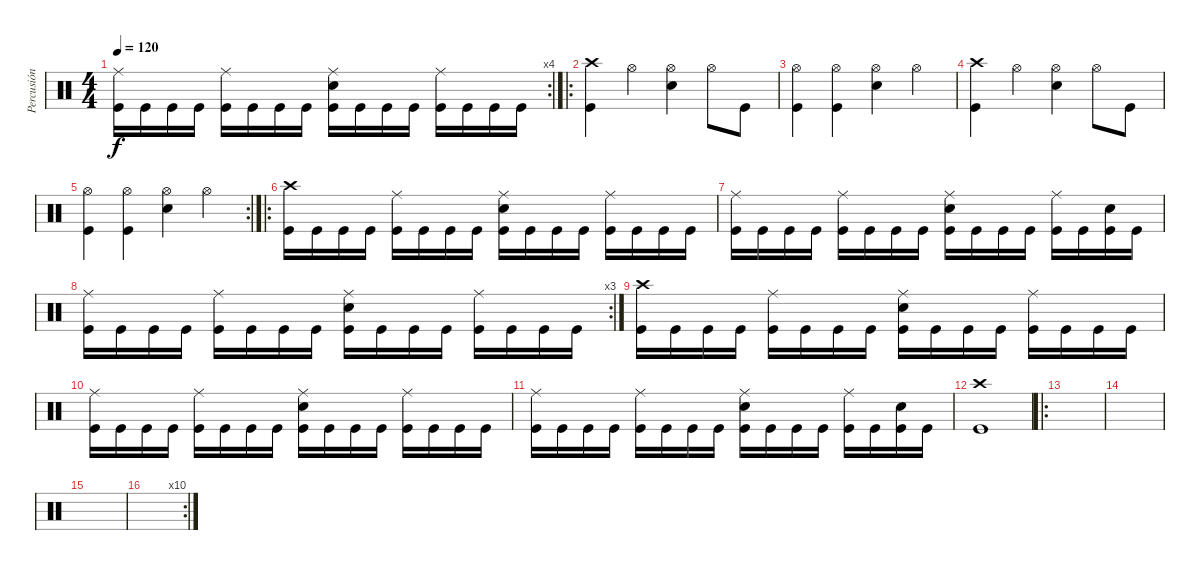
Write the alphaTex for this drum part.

\track ("Percusión" "Percusión") {instrument percussion}
\staff {score}
\articulation defaults
\rc 4
\ts (4 4)
\tempo 120
\clef neutral
\ks c
("Ride (middle)" "Kick (hit)").16{dy f} "Kick (hit)".16 "Kick (hit)".16 "Kick (hit)".16 ("Kick (hit)" "Ride (middle)").16 "Kick (hit)".16 "Kick (hit)".16 "Kick (hit)".16 ("Electric Snare (hit)" "Kick (hit)" "Ride (middle)").16 "Kick (hit)".16 "Kick (hit)".16 "Kick (hit)".16 ("Kick (hit)" "Ride (middle)").16 "Kick (hit)".16 "Kick (hit)".16 "Kick (hit)".16 |
\ro
("Crash high (hit)" "Kick (hit)").4 "Hi-Hat (open)".4 ("Electric Snare (hit)" "Hi-Hat (open)").4 "Hi-Hat (open)".8 "Kick (hit)".8 |
("Kick (hit)" "Hi-Hat (open)").4 ("Kick (hit)" "Hi-Hat (open)").4 ("Electric Snare (hit)" "Hi-Hat (open)").4 "Hi-Hat (open)".4 |
("Crash high (hit)" "Kick (hit)").4 "Hi-Hat (open)".4 ("Electric Snare (hit)" "Hi-Hat (open)").4 "Hi-Hat (open)".8 "Kick (hit)".8 |
\rc 2
("Kick (hit)" "Hi-Hat (open)").4 ("Kick (hit)" "Hi-Hat (open)").4 ("Electric Snare (hit)" "Hi-Hat (open)").4 "Hi-Hat (open)".4 |
\ro
("Crash high (hit)" "Kick (hit)").16 "Kick (hit)".16 "Kick (hit)".16 "Kick (hit)".16 ("Kick (hit)" "Ride (middle)").16 "Kick (hit)".16 "Kick (hit)".16 "Kick (hit)".16 ("Electric Snare (hit)" "Kick (hit)" "Ride (middle)").16 "Kick (hit)".16 "Kick (hit)".16 "Kick (hit)".16 ("Kick (hit)" "Ride (middle)").16 "Kick (hit)".16 "Kick (hit)".16 "Kick (hit)".16 |
("Ride (middle)" "Kick (hit)").16 "Kick (hit)".16 "Kick (hit)".16 "Kick (hit)".16 ("Kick (hit)" "Ride (middle)").16 "Kick (hit)".16 "Kick (hit)".16 "Kick (hit)".16 ("Electric Snare (hit)" "Kick (hit)" "Ride (middle)").16 "Kick (hit)".16 "Kick (hit)".16 "Kick (hit)".16 ("Kick (hit)" "Ride (middle)").16 "Kick (hit)".16 ("Kick (hit)" "Electric Snare (hit)").16 "Kick (hit)".16 |
\rc 3
("Ride (middle)" "Kick (hit)").16 "Kick (hit)".16 "Kick (hit)".16 "Kick (hit)".16 ("Kick (hit)" "Ride (middle)").16 "Kick (hit)".16 "Kick (hit)".16 "Kick (hit)".16 ("Electric Snare (hit)" "Kick (hit)" "Ride (middle)").16 "Kick (hit)".16 "Kick (hit)".16 "Kick (hit)".16 ("Kick (hit)" "Ride (middle)").16 "Kick (hit)".16 "Kick (hit)".16 "Kick (hit)".16 |
("Crash high (hit)" "Kick (hit)").16 "Kick (hit)".16 "Kick (hit)".16 "Kick (hit)".16 ("Kick (hit)" "Ride (middle)").16 "Kick (hit)".16 "Kick (hit)".16 "Kick (hit)".16 ("Electric Snare (hit)" "Kick (hit)" "Ride (middle)").16 "Kick (hit)".16 "Kick (hit)".16 "Kick (hit)".16 ("Kick (hit)" "Ride (middle)").16 "Kick (hit)".16 "Kick (hit)".16 "Kick (hit)".16 |
("Ride (middle)" "Kick (hit)").16 "Kick (hit)".16 "Kick (hit)".16 "Kick (hit)".16 ("Kick (hit)" "Ride (middle)").16 "Kick (hit)".16 "Kick (hit)".16 "Kick (hit)".16 ("Electric Snare (hit)" "Kick (hit)" "Ride (middle)").16 "Kick (hit)".16 "Kick (hit)".16 "Kick (hit)".16 ("Kick (hit)" "Ride (middle)").16 "Kick (hit)".16 "Kick (hit)".16 "Kick (hit)".16 |
("Ride (middle)" "Kick (hit)").16 "Kick (hit)".16 "Kick (hit)".16 "Kick (hit)".16 ("Kick (hit)" "Ride (middle)").16 "Kick (hit)".16 "Kick (hit)".16 "Kick (hit)".16 ("Electric Snare (hit)" "Kick (hit)" "Ride (middle)").16 "Kick (hit)".16 "Kick (hit)".16 "Kick (hit)".16 ("Kick (hit)" "Ride (middle)").16 "Kick (hit)".16 ("Kick (hit)" "Electric Snare (hit)").16 "Kick (hit)".16 |
("Kick (hit)" "Crash high (hit)").1 |
\ro
|
|
|
\rc 10
